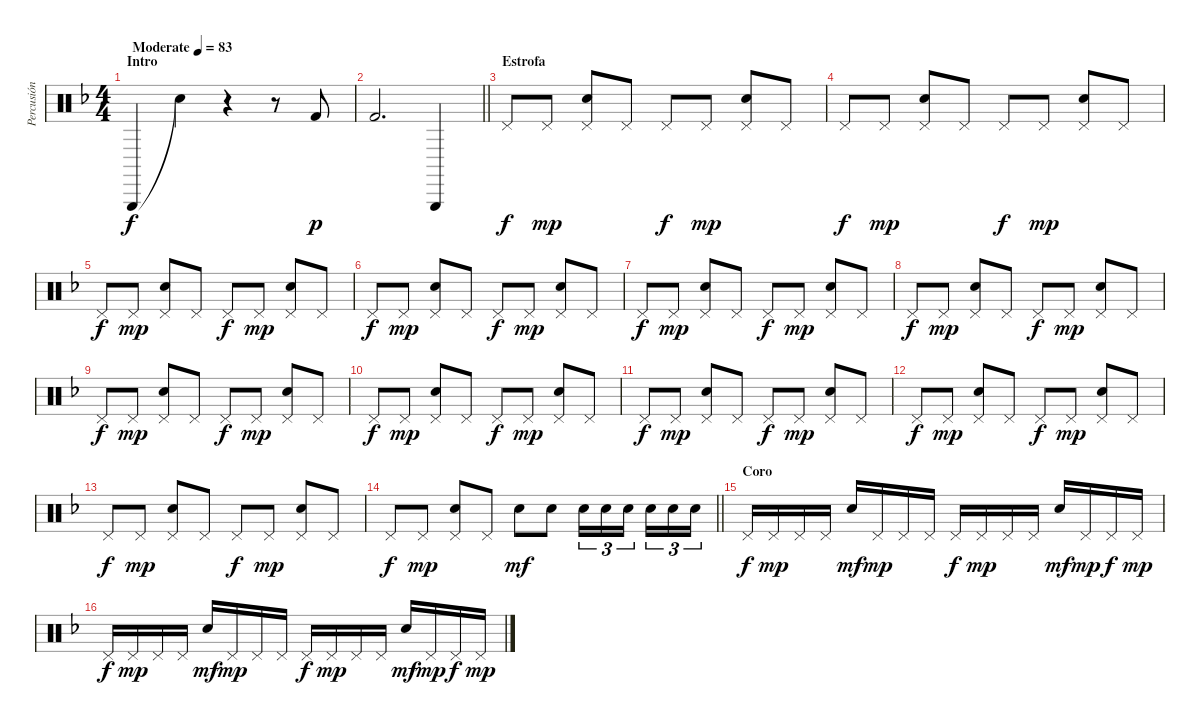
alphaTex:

\track ("Percusión" "Percusión") {instrument percussion}
\staff {score}
\articulation defaults
\ts (4 4)
\section ("" "Intro")
\tempo (83 "Moderate")
\clef neutral
\ks dminor "Triangle (hit)".4{dy f} "Snare (hit)"{t}.4
r.4 r.8 "Kick (hit) 2".8{dy p} |
\barLineRight lightlight "Kick (hit) 2".2{d} "Triangle (hit)".4
|
\section ("" "Estrofa")
"Pedal Hi-Hat (hit)".8{dy f} "Pedal Hi-Hat (hit)".8{dy mp} ("Pedal Hi-Hat (hit)" "Electric Snare (hit)").8 "Pedal Hi-Hat (hit)".8 "Pedal Hi-Hat (hit)".8{dy f} "Pedal Hi-Hat (hit)".8{dy mp} ("Pedal Hi-Hat (hit)" "Electric Snare (hit)").8 "Pedal Hi-Hat (hit)".8 |
"Pedal Hi-Hat (hit)".8{dy f} "Pedal Hi-Hat (hit)".8{dy mp} ("Pedal Hi-Hat (hit)" "Electric Snare (hit)").8 "Pedal Hi-Hat (hit)".8 "Pedal Hi-Hat (hit)".8{dy f} "Pedal Hi-Hat (hit)".8{dy mp} ("Pedal Hi-Hat (hit)" "Electric Snare (hit)").8 "Pedal Hi-Hat (hit)".8 |
"Pedal Hi-Hat (hit)".8{dy f} "Pedal Hi-Hat (hit)".8{dy mp} ("Pedal Hi-Hat (hit)" "Electric Snare (hit)").8 "Pedal Hi-Hat (hit)".8 "Pedal Hi-Hat (hit)".8{dy f} "Pedal Hi-Hat (hit)".8{dy mp} ("Pedal Hi-Hat (hit)" "Electric Snare (hit)").8 "Pedal Hi-Hat (hit)".8 |
"Pedal Hi-Hat (hit)".8{dy f} "Pedal Hi-Hat (hit)".8{dy mp} ("Pedal Hi-Hat (hit)" "Electric Snare (hit)").8 "Pedal Hi-Hat (hit)".8 "Pedal Hi-Hat (hit)".8{dy f} "Pedal Hi-Hat (hit)".8{dy mp} ("Pedal Hi-Hat (hit)" "Electric Snare (hit)").8 "Pedal Hi-Hat (hit)".8 |
"Pedal Hi-Hat (hit)".8{dy f} "Pedal Hi-Hat (hit)".8{dy mp} ("Pedal Hi-Hat (hit)" "Electric Snare (hit)").8 "Pedal Hi-Hat (hit)".8 "Pedal Hi-Hat (hit)".8{dy f} "Pedal Hi-Hat (hit)".8{dy mp} ("Pedal Hi-Hat (hit)" "Electric Snare (hit)").8 "Pedal Hi-Hat (hit)".8 |
"Pedal Hi-Hat (hit)".8{dy f} "Pedal Hi-Hat (hit)".8{dy mp} ("Pedal Hi-Hat (hit)" "Electric Snare (hit)").8 "Pedal Hi-Hat (hit)".8 "Pedal Hi-Hat (hit)".8{dy f} "Pedal Hi-Hat (hit)".8{dy mp} ("Pedal Hi-Hat (hit)" "Electric Snare (hit)").8 "Pedal Hi-Hat (hit)".8 |
"Pedal Hi-Hat (hit)".8{dy f} "Pedal Hi-Hat (hit)".8{dy mp} ("Pedal Hi-Hat (hit)" "Electric Snare (hit)").8 "Pedal Hi-Hat (hit)".8 "Pedal Hi-Hat (hit)".8{dy f} "Pedal Hi-Hat (hit)".8{dy mp} ("Pedal Hi-Hat (hit)" "Electric Snare (hit)").8 "Pedal Hi-Hat (hit)".8 |
"Pedal Hi-Hat (hit)".8{dy f} "Pedal Hi-Hat (hit)".8{dy mp} ("Pedal Hi-Hat (hit)" "Electric Snare (hit)").8 "Pedal Hi-Hat (hit)".8 "Pedal Hi-Hat (hit)".8{dy f} "Pedal Hi-Hat (hit)".8{dy mp} ("Pedal Hi-Hat (hit)" "Electric Snare (hit)").8 "Pedal Hi-Hat (hit)".8 |
"Pedal Hi-Hat (hit)".8{dy f} "Pedal Hi-Hat (hit)".8{dy mp} ("Pedal Hi-Hat (hit)" "Electric Snare (hit)").8 "Pedal Hi-Hat (hit)".8 "Pedal Hi-Hat (hit)".8{dy f} "Pedal Hi-Hat (hit)".8{dy mp} ("Pedal Hi-Hat (hit)" "Electric Snare (hit)").8 "Pedal Hi-Hat (hit)".8 |
"Pedal Hi-Hat (hit)".8{dy f} "Pedal Hi-Hat (hit)".8{dy mp} ("Pedal Hi-Hat (hit)" "Electric Snare (hit)").8 "Pedal Hi-Hat (hit)".8 "Pedal Hi-Hat (hit)".8{dy f} "Pedal Hi-Hat (hit)".8{dy mp} ("Pedal Hi-Hat (hit)" "Electric Snare (hit)").8 "Pedal Hi-Hat (hit)".8 |
"Pedal Hi-Hat (hit)".8{dy f} "Pedal Hi-Hat (hit)".8{dy mp} ("Pedal Hi-Hat (hit)" "Electric Snare (hit)").8 "Pedal Hi-Hat (hit)".8 "Pedal Hi-Hat (hit)".8{dy f} "Pedal Hi-Hat (hit)".8{dy mp} ("Pedal Hi-Hat (hit)" "Electric Snare (hit)").8 "Pedal Hi-Hat (hit)".8 |
\barLineRight lightlight "Pedal Hi-Hat (hit)".8{dy f} "Pedal Hi-Hat (hit)".8{dy mp}
("Pedal Hi-Hat (hit)" "Electric Snare (hit)").8 "Pedal Hi-Hat (hit)".8 "Electric Snare (hit)".8{dy mf} "Electric Snare (hit)".8 "Electric Snare (hit)".16{tu (3 2)} "Electric Snare (hit)".16{tu (3 2)} "Electric Snare (hit)".16{tu (3 2) beam splitsecondary} "Electric Snare (hit)".16{tu (3 2)} "Electric Snare (hit)".16{tu (3 2)} "Electric Snare (hit)".16{tu (3 2)} |
\section ("" "Coro")
"Pedal Hi-Hat (hit)".16{dy f} "Pedal Hi-Hat (hit)".16{dy mp} "Pedal Hi-Hat (hit)".16 "Pedal Hi-Hat (hit)".16 "Electric Snare (hit)".16{dy mf} "Pedal Hi-Hat (hit)".16{dy mp} "Pedal Hi-Hat (hit)".16 "Pedal Hi-Hat (hit)".16 "Pedal Hi-Hat (hit)".16{dy f} "Pedal Hi-Hat (hit)".16{dy mp} "Pedal Hi-Hat (hit)".16 "Pedal Hi-Hat (hit)".16 "Electric Snare (hit)".16{dy mf} "Pedal Hi-Hat (hit)".16{dy mp} "Pedal Hi-Hat (hit)".16{dy f} "Pedal Hi-Hat (hit)".16{dy mp} |
"Pedal Hi-Hat (hit)".16{dy f} "Pedal Hi-Hat (hit)".16{dy mp} "Pedal Hi-Hat (hit)".16 "Pedal Hi-Hat (hit)".16 "Electric Snare (hit)".16{dy mf} "Pedal Hi-Hat (hit)".16{dy mp} "Pedal Hi-Hat (hit)".16 "Pedal Hi-Hat (hit)".16 "Pedal Hi-Hat (hit)".16{dy f} "Pedal Hi-Hat (hit)".16{dy mp} "Pedal Hi-Hat (hit)".16 "Pedal Hi-Hat (hit)".16 "Electric Snare (hit)".16{dy mf} "Pedal Hi-Hat (hit)".16{dy mp} "Pedal Hi-Hat (hit)".16{dy f} "Pedal Hi-Hat (hit)".16{dy mp}
